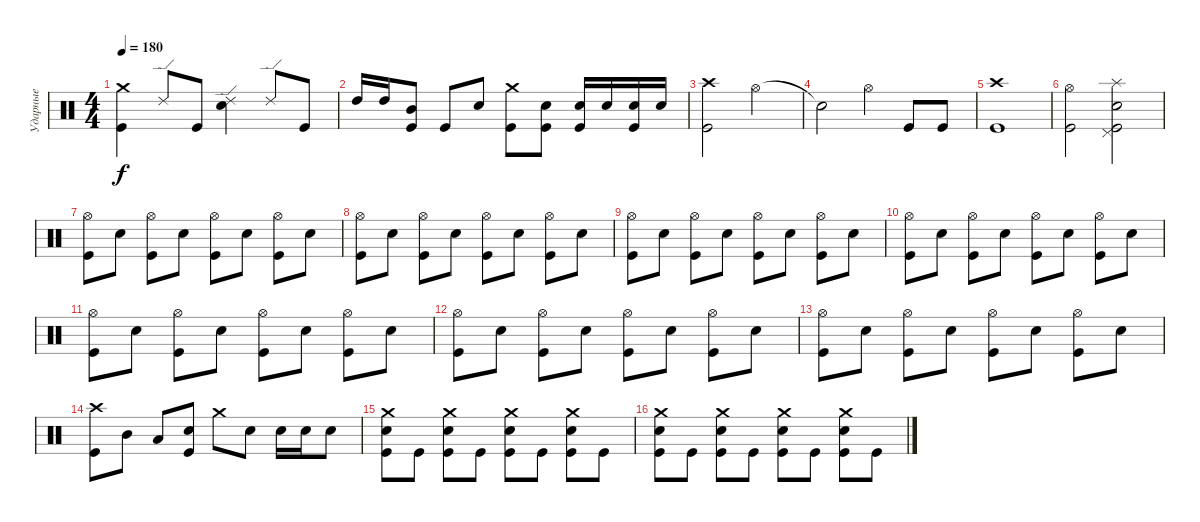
\track ("Ударные" "Ударные") {instrument percussion}
\staff {score}
\articulation defaults
\ts (4 4)
\tempo 180
\clef neutral
\ks c
("Crash medium (hit)" "Kick (hit)").4{dy f} "Ride (edge) 2".8 "Kick (hit)".8 ("Ride (edge) 2" "Snare (hit) 2").4 "Ride (edge) 2".8 "Kick (hit)".8 |
"High Tom (hit)".16 "High Tom (hit)".16 ("Mid Tom (hit)" "Kick (hit)").8 "Kick (hit)".8 "Snare (hit) 2".8 ("Crash medium (hit)" "Kick (hit)").8 ("Snare (hit) 2" "Kick (hit)").8 ("Snare (hit) 2" "Kick (hit)").16 "Snare (hit) 2".16 ("Snare (hit) 2" "Kick (hit)").16 "Snare (hit) 2".16 |
("Crash high (hit)" "Kick (hit)").2 "Hi-Hat (open)".2 |
"Snare (hit)"{t}.2 "Hi-Hat (open)".4 "Kick (hit)".8 "Kick (hit)".8 |
("Crash high (hit)" "Kick (hit)").1 |
("Hi-Hat (open)" "Kick (hit)").2 ("Pedal Hi-Hat (hit)" "Splash (hit)" "Snare (hit) 2" "Kick (hit)").2 |
("Hi-Hat (open)" "Kick (hit)").8 "Snare (hit) 2".8 ("Hi-Hat (open)" "Kick (hit)").8 "Snare (hit) 2".8 ("Hi-Hat (open)" "Kick (hit)").8 "Snare (hit) 2".8 ("Hi-Hat (open)" "Kick (hit)").8 "Snare (hit) 2".8 |
("Hi-Hat (open)" "Kick (hit)").8 "Snare (hit) 2".8 ("Hi-Hat (open)" "Kick (hit)").8 "Snare (hit) 2".8 ("Hi-Hat (open)" "Kick (hit)").8 "Snare (hit) 2".8 ("Hi-Hat (open)" "Kick (hit)").8 "Snare (hit) 2".8 |
("Hi-Hat (open)" "Kick (hit)").8 "Snare (hit) 2".8 ("Hi-Hat (open)" "Kick (hit)").8 "Snare (hit) 2".8 ("Hi-Hat (open)" "Kick (hit)").8 "Snare (hit) 2".8 ("Hi-Hat (open)" "Kick (hit)").8 "Snare (hit) 2".8 |
("Hi-Hat (open)" "Kick (hit)").8 "Snare (hit) 2".8 ("Hi-Hat (open)" "Kick (hit)").8 "Snare (hit) 2".8 ("Hi-Hat (open)" "Kick (hit)").8 "Snare (hit) 2".8 ("Hi-Hat (open)" "Kick (hit)").8 "Snare (hit) 2".8 |
("Hi-Hat (open)" "Kick (hit)").8 "Snare (hit) 2".8 ("Hi-Hat (open)" "Kick (hit)").8 "Snare (hit) 2".8 ("Hi-Hat (open)" "Kick (hit)").8 "Snare (hit) 2".8 ("Hi-Hat (open)" "Kick (hit)").8 "Snare (hit) 2".8 |
("Hi-Hat (open)" "Kick (hit)").8 "Snare (hit) 2".8 ("Hi-Hat (open)" "Kick (hit)").8 "Snare (hit) 2".8 ("Hi-Hat (open)" "Kick (hit)").8 "Snare (hit) 2".8 ("Hi-Hat (open)" "Kick (hit)").8 "Snare (hit) 2".8 |
("Hi-Hat (open)" "Kick (hit)").8 "Snare (hit) 2".8 ("Hi-Hat (open)" "Kick (hit)").8 "Snare (hit) 2".8 ("Hi-Hat (open)" "Kick (hit)").8 "Snare (hit) 2".8 ("Hi-Hat (open)" "Kick (hit)").8 "Snare (hit) 2".8 |
("Crash high (hit)" "Kick (hit)").8 "Mid Tom (hit)".8 "Low Tom (hit)".8 ("Snare (hit) 2" "Kick (hit)").8 "Crash medium (hit)".8 "Snare (hit) 2".8 "Snare (hit) 2".16 "Snare (hit) 2".16 "Snare (hit) 2".8 |
("Crash medium (hit)" "Snare (hit) 2" "Kick (hit)").8 "Kick (hit)".8 ("Crash medium (hit)" "Snare (hit) 2" "Kick (hit)").8 "Kick (hit)".8 ("Crash medium (hit)" "Snare (hit) 2" "Kick (hit)").8 "Kick (hit)".8 ("Crash medium (hit)" "Snare (hit) 2" "Kick (hit)").8 "Kick (hit)".8 |
("Crash medium (hit)" "Snare (hit) 2" "Kick (hit)").8 "Kick (hit)".8 ("Crash medium (hit)" "Snare (hit) 2" "Kick (hit)").8 "Kick (hit)".8 ("Crash medium (hit)" "Snare (hit) 2" "Kick (hit)").8 "Kick (hit)".8 ("Crash medium (hit)" "Snare (hit) 2" "Kick (hit)").8 "Kick (hit)".8
